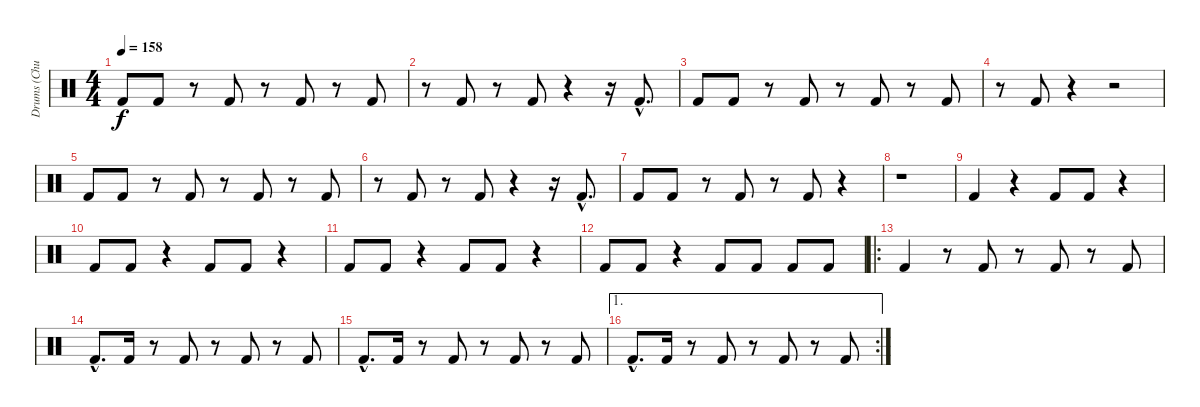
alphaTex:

\track ("Drums (Chuck Behler)" "Drums (Chu") {instrument percussion}
\staff {score}
\articulation defaults
\ts (4 4)
\tempo 158
\clef neutral
\ks c "Kick (hit) 2".8{dy f} "Kick (hit) 2".8
r.8 "Kick (hit) 2".8 r.8 "Kick (hit) 2".8 r.8 "Kick (hit) 2".8 |
r.8 "Kick (hit) 2".8 r.8 "Kick (hit) 2".8 r.4 r.16 "Kick (hit) 2"{hac}.8{d} |
"Kick (hit) 2".8 "Kick (hit) 2".8 r.8 "Kick (hit) 2".8 r.8 "Kick (hit) 2".8 r.8 "Kick (hit) 2".8 |
r.8 "Kick (hit) 2".8 r.4 r.2 |
"Kick (hit) 2".8 "Kick (hit) 2".8 r.8 "Kick (hit) 2".8 r.8 "Kick (hit) 2".8 r.8 "Kick (hit) 2".8 |
r.8 "Kick (hit) 2".8 r.8 "Kick (hit) 2".8 r.4 r.16 "Kick (hit) 2"{hac}.8{d} |
"Kick (hit) 2".8 "Kick (hit) 2".8 r.8 "Kick (hit) 2".8 r.8 "Kick (hit) 2".8 r.4 |
r.1 |
"Kick (hit) 2".4 r.4 "Kick (hit) 2".8 "Kick (hit) 2".8 r.4 |
"Kick (hit) 2".8 "Kick (hit) 2".8 r.4 "Kick (hit) 2".8 "Kick (hit) 2".8 r.4 |
"Kick (hit) 2".8 "Kick (hit) 2".8 r.4 "Kick (hit) 2".8 "Kick (hit) 2".8 r.4 |
"Kick (hit) 2".8 "Kick (hit) 2".8 r.4 "Kick (hit) 2".8 "Kick (hit) 2".8 "Kick (hit) 2".8 "Kick (hit) 2".8 |
\ro "Kick (hit) 2".4
r.8 "Kick (hit) 2".8 r.8 "Kick (hit) 2".8 r.8 "Kick (hit) 2".8 |
"Kick (hit) 2"{hac}.8{d} "Kick (hit) 2".16 r.8 "Kick (hit) 2".8 r.8 "Kick (hit) 2".8 r.8 "Kick (hit) 2".8 |
"Kick (hit) 2"{hac}.8{d} "Kick (hit) 2".16 r.8 "Kick (hit) 2".8 r.8 "Kick (hit) 2".8 r.8 "Kick (hit) 2".8 |
\ae 1
\rc 2 "Kick (hit) 2"{hac}.8{d} "Kick (hit) 2".16
r.8 "Kick (hit) 2".8 r.8 "Kick (hit) 2".8 r.8 "Kick (hit) 2".8
